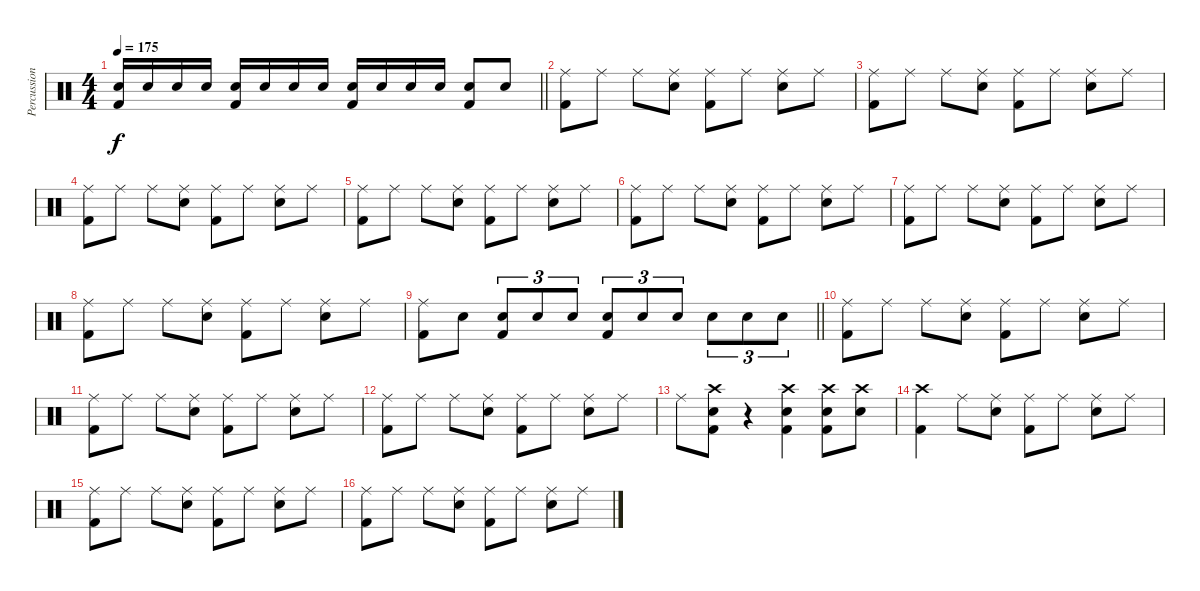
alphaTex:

\track ("Percussion" "Percussion") {instrument percussion}
\staff {score}
\articulation defaults
\ts (4 4)
\tempo 175
\clef neutral
\barLineRight lightlight
\ks c
("Snare (hit) 2" "Kick (hit) 2").16{dy f} "Snare (hit) 2".16 "Snare (hit) 2".16 "Snare (hit) 2".16 ("Snare (hit) 2" "Kick (hit) 2").16 "Snare (hit) 2".16 "Snare (hit) 2".16 "Snare (hit) 2".16 ("Snare (hit) 2" "Kick (hit) 2").16 "Snare (hit) 2".16 "Snare (hit) 2".16 "Snare (hit) 2".16 ("Snare (hit) 2" "Kick (hit) 2").8 "Snare (hit) 2".8 |
("Ride (middle)" "Kick (hit) 2").8 "Ride (middle)".8 "Ride (middle)".8 ("Ride (middle)" "Snare (hit) 2").8 ("Ride (middle)" "Kick (hit) 2").8 "Ride (middle)".8 ("Ride (middle)" "Snare (hit) 2").8 "Ride (middle)".8 |
("Ride (middle)" "Kick (hit) 2").8 "Ride (middle)".8 "Ride (middle)".8 ("Ride (middle)" "Snare (hit) 2").8 ("Ride (middle)" "Kick (hit) 2").8 "Ride (middle)".8 ("Ride (middle)" "Snare (hit) 2").8 "Ride (middle)".8 |
("Ride (middle)" "Kick (hit) 2").8 "Ride (middle)".8 "Ride (middle)".8 ("Ride (middle)" "Snare (hit) 2").8 ("Ride (middle)" "Kick (hit) 2").8 "Ride (middle)".8 ("Ride (middle)" "Snare (hit) 2").8 "Ride (middle)".8 |
("Ride (middle)" "Kick (hit) 2").8 "Ride (middle)".8 "Ride (middle)".8 ("Ride (middle)" "Snare (hit) 2").8 ("Ride (middle)" "Kick (hit) 2").8 "Ride (middle)".8 ("Ride (middle)" "Snare (hit) 2").8 "Ride (middle)".8 |
("Ride (middle)" "Kick (hit) 2").8 "Ride (middle)".8 "Ride (middle)".8 ("Ride (middle)" "Snare (hit) 2").8 ("Ride (middle)" "Kick (hit) 2").8 "Ride (middle)".8 ("Ride (middle)" "Snare (hit) 2").8 "Ride (middle)".8 |
("Ride (middle)" "Kick (hit) 2").8 "Ride (middle)".8 "Ride (middle)".8 ("Ride (middle)" "Snare (hit) 2").8 ("Ride (middle)" "Kick (hit) 2").8 "Ride (middle)".8 ("Ride (middle)" "Snare (hit) 2").8 "Ride (middle)".8 |
("Ride (middle)" "Kick (hit) 2").8 "Ride (middle)".8 "Ride (middle)".8 ("Ride (middle)" "Snare (hit) 2").8 ("Ride (middle)" "Kick (hit) 2").8 "Ride (middle)".8 ("Ride (middle)" "Snare (hit) 2").8 "Ride (middle)".8 |
\barLineRight lightlight
("Ride (middle)" "Kick (hit) 2").8 "Snare (hit) 2".8 ("Snare (hit) 2" "Kick (hit) 2").8{tu (3 2)} "Snare (hit) 2".8{tu (3 2)} "Snare (hit) 2".8{tu (3 2)} ("Snare (hit) 2" "Kick (hit) 2").8{tu (3 2)} "Snare (hit) 2".8{tu (3 2)} "Snare (hit) 2".8{tu (3 2)} "Snare (hit) 2".8{tu (3 2)} "Snare (hit) 2".8{tu (3 2)} "Snare (hit) 2".8{tu (3 2)} |
("Ride (middle)" "Kick (hit) 2").8 "Ride (middle)".8 "Ride (middle)".8 ("Ride (middle)" "Snare (hit) 2").8 ("Ride (middle)" "Kick (hit) 2").8 "Ride (middle)".8 ("Ride (middle)" "Snare (hit) 2").8 "Ride (middle)".8 |
("Ride (middle)" "Kick (hit) 2").8 "Ride (middle)".8 "Ride (middle)".8 ("Ride (middle)" "Snare (hit) 2").8 ("Ride (middle)" "Kick (hit) 2").8 "Ride (middle)".8 ("Ride (middle)" "Snare (hit) 2").8 "Ride (middle)".8 |
("Ride (middle)" "Kick (hit) 2").8 "Ride (middle)".8 "Ride (middle)".8 ("Ride (middle)" "Snare (hit) 2").8 ("Ride (middle)" "Kick (hit) 2").8 "Ride (middle)".8 ("Ride (middle)" "Snare (hit) 2").8 "Ride (middle)".8 |
"Ride (middle)".8 ("Crash high (hit)" "Snare (hit) 2" "Kick (hit) 2").8 r.4 ("Crash high (hit)" "Snare (hit) 2" "Kick (hit) 2").4 ("Crash high (hit)" "Snare (hit) 2" "Kick (hit) 2").8 ("Crash high (hit)" "Snare (hit) 2").8 |
("Crash high (hit)" "Kick (hit) 2").4 "Ride (middle)".8 ("Ride (middle)" "Snare (hit) 2").8 ("Ride (middle)" "Kick (hit) 2").8 "Ride (middle)".8 ("Ride (middle)" "Snare (hit) 2").8 "Ride (middle)".8 |
("Ride (middle)" "Kick (hit) 2").8 "Ride (middle)".8 "Ride (middle)".8 ("Ride (middle)" "Snare (hit) 2").8 ("Ride (middle)" "Kick (hit) 2").8 "Ride (middle)".8 ("Ride (middle)" "Snare (hit) 2").8 "Ride (middle)".8 |
("Ride (middle)" "Kick (hit) 2").8 "Ride (middle)".8 "Ride (middle)".8 ("Ride (middle)" "Snare (hit) 2").8 ("Ride (middle)" "Kick (hit) 2").8 "Ride (middle)".8 ("Ride (middle)" "Snare (hit) 2").8 "Ride (middle)".8
